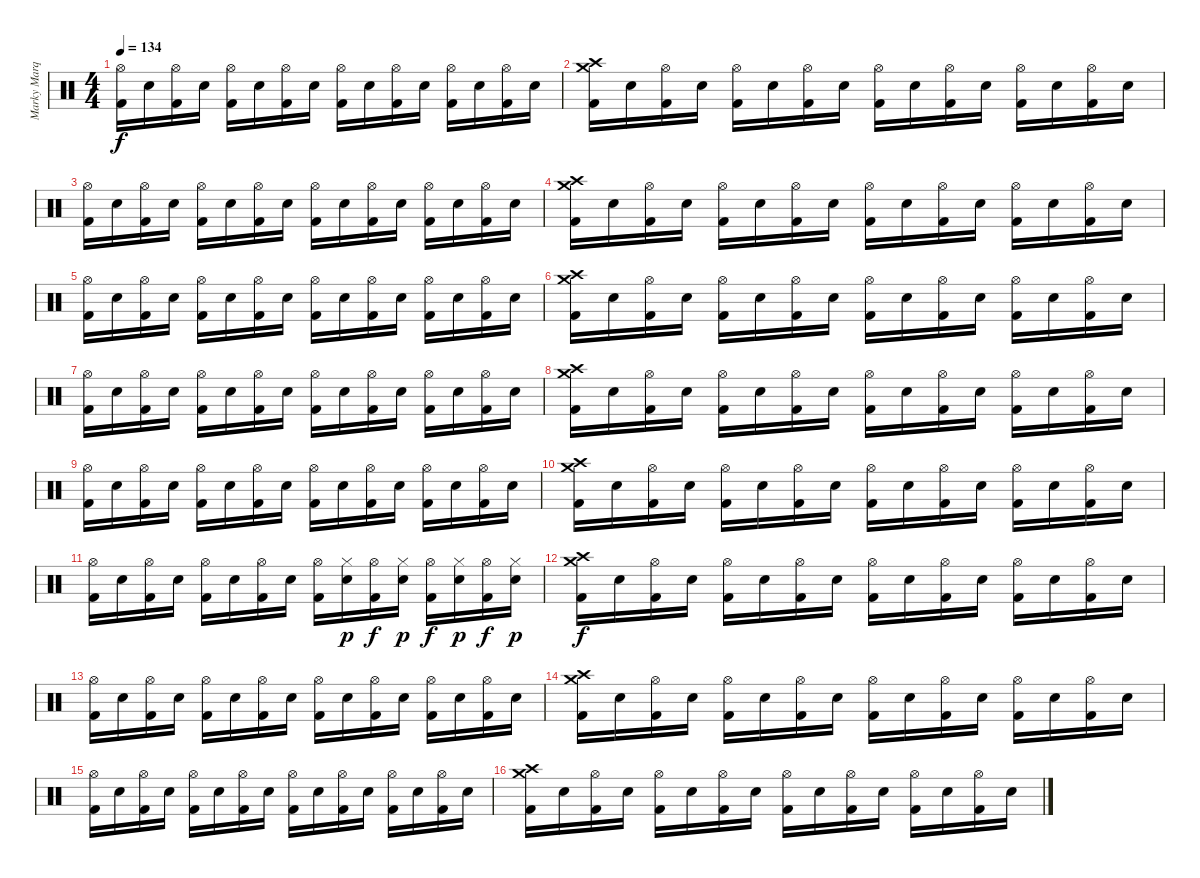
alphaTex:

\track ("Marky Marquis" "Marky Marq") {instrument percussion}
\staff {score}
\articulation defaults
\ts (4 4)
\tempo 134
\clef neutral
\ks c
("Hi-Hat (open)" "Kick (hit) 2").16{dy f} "Electric Snare (hit)".16 ("Hi-Hat (open)" "Kick (hit) 2").16 "Electric Snare (hit)".16 ("Hi-Hat (open)" "Kick (hit) 2").16 "Electric Snare (hit)".16 ("Hi-Hat (open)" "Kick (hit) 2").16 "Electric Snare (hit)".16 ("Hi-Hat (open)" "Kick (hit) 2").16 "Electric Snare (hit)".16 ("Hi-Hat (open)" "Kick (hit) 2").16 "Electric Snare (hit)".16 ("Hi-Hat (open)" "Kick (hit) 2").16 "Electric Snare (hit)".16 ("Hi-Hat (open)" "Kick (hit) 2").16 "Electric Snare (hit)".16 |
("Crash medium (hit)" "Crash high (hit)" "Kick (hit) 2").16 "Electric Snare (hit)".16 ("Hi-Hat (open)" "Kick (hit) 2").16 "Electric Snare (hit)".16 ("Hi-Hat (open)" "Kick (hit) 2").16 "Electric Snare (hit)".16 ("Hi-Hat (open)" "Kick (hit) 2").16 "Electric Snare (hit)".16 ("Hi-Hat (open)" "Kick (hit) 2").16 "Electric Snare (hit)".16 ("Hi-Hat (open)" "Kick (hit) 2").16 "Electric Snare (hit)".16 ("Hi-Hat (open)" "Kick (hit) 2").16 "Electric Snare (hit)".16 ("Hi-Hat (open)" "Kick (hit) 2").16 "Electric Snare (hit)".16 |
("Hi-Hat (open)" "Kick (hit) 2").16 "Electric Snare (hit)".16 ("Hi-Hat (open)" "Kick (hit) 2").16 "Electric Snare (hit)".16 ("Hi-Hat (open)" "Kick (hit) 2").16 "Electric Snare (hit)".16 ("Hi-Hat (open)" "Kick (hit) 2").16 "Electric Snare (hit)".16 ("Hi-Hat (open)" "Kick (hit) 2").16 "Electric Snare (hit)".16 ("Hi-Hat (open)" "Kick (hit) 2").16 "Electric Snare (hit)".16 ("Hi-Hat (open)" "Kick (hit) 2").16 "Electric Snare (hit)".16 ("Hi-Hat (open)" "Kick (hit) 2").16 "Electric Snare (hit)".16 |
("Crash medium (hit)" "Crash high (hit)" "Kick (hit) 2").16 "Electric Snare (hit)".16 ("Hi-Hat (open)" "Kick (hit) 2").16 "Electric Snare (hit)".16 ("Hi-Hat (open)" "Kick (hit) 2").16 "Electric Snare (hit)".16 ("Hi-Hat (open)" "Kick (hit) 2").16 "Electric Snare (hit)".16 ("Hi-Hat (open)" "Kick (hit) 2").16 "Electric Snare (hit)".16 ("Hi-Hat (open)" "Kick (hit) 2").16 "Electric Snare (hit)".16 ("Hi-Hat (open)" "Kick (hit) 2").16 "Electric Snare (hit)".16 ("Hi-Hat (open)" "Kick (hit) 2").16 "Electric Snare (hit)".16 |
("Hi-Hat (open)" "Kick (hit) 2").16 "Electric Snare (hit)".16 ("Hi-Hat (open)" "Kick (hit) 2").16 "Electric Snare (hit)".16 ("Hi-Hat (open)" "Kick (hit) 2").16 "Electric Snare (hit)".16 ("Hi-Hat (open)" "Kick (hit) 2").16 "Electric Snare (hit)".16 ("Hi-Hat (open)" "Kick (hit) 2").16 "Electric Snare (hit)".16 ("Hi-Hat (open)" "Kick (hit) 2").16 "Electric Snare (hit)".16 ("Hi-Hat (open)" "Kick (hit) 2").16 "Electric Snare (hit)".16 ("Hi-Hat (open)" "Kick (hit) 2").16 "Electric Snare (hit)".16 |
("Crash medium (hit)" "Crash high (hit)" "Kick (hit) 2").16 "Electric Snare (hit)".16 ("Hi-Hat (open)" "Kick (hit) 2").16 "Electric Snare (hit)".16 ("Hi-Hat (open)" "Kick (hit) 2").16 "Electric Snare (hit)".16 ("Hi-Hat (open)" "Kick (hit) 2").16 "Electric Snare (hit)".16 ("Hi-Hat (open)" "Kick (hit) 2").16 "Electric Snare (hit)".16 ("Hi-Hat (open)" "Kick (hit) 2").16 "Electric Snare (hit)".16 ("Hi-Hat (open)" "Kick (hit) 2").16 "Electric Snare (hit)".16 ("Hi-Hat (open)" "Kick (hit) 2").16 "Electric Snare (hit)".16 |
("Hi-Hat (open)" "Kick (hit) 2").16 "Electric Snare (hit)".16 ("Hi-Hat (open)" "Kick (hit) 2").16 "Electric Snare (hit)".16 ("Hi-Hat (open)" "Kick (hit) 2").16 "Electric Snare (hit)".16 ("Hi-Hat (open)" "Kick (hit) 2").16 "Electric Snare (hit)".16 ("Hi-Hat (open)" "Kick (hit) 2").16 "Electric Snare (hit)".16 ("Hi-Hat (open)" "Kick (hit) 2").16 "Electric Snare (hit)".16 ("Hi-Hat (open)" "Kick (hit) 2").16 "Electric Snare (hit)".16 ("Hi-Hat (open)" "Kick (hit) 2").16 "Electric Snare (hit)".16 |
("Crash medium (hit)" "Crash high (hit)" "Kick (hit) 2").16 "Electric Snare (hit)".16 ("Hi-Hat (open)" "Kick (hit) 2").16 "Electric Snare (hit)".16 ("Hi-Hat (open)" "Kick (hit) 2").16 "Electric Snare (hit)".16 ("Hi-Hat (open)" "Kick (hit) 2").16 "Electric Snare (hit)".16 ("Hi-Hat (open)" "Kick (hit) 2").16 "Electric Snare (hit)".16 ("Hi-Hat (open)" "Kick (hit) 2").16 "Electric Snare (hit)".16 ("Hi-Hat (open)" "Kick (hit) 2").16 "Electric Snare (hit)".16 ("Hi-Hat (open)" "Kick (hit) 2").16 "Electric Snare (hit)".16 |
("Hi-Hat (open)" "Kick (hit) 2").16 "Electric Snare (hit)".16 ("Hi-Hat (open)" "Kick (hit) 2").16 "Electric Snare (hit)".16 ("Hi-Hat (open)" "Kick (hit) 2").16 "Electric Snare (hit)".16 ("Hi-Hat (open)" "Kick (hit) 2").16 "Electric Snare (hit)".16 ("Hi-Hat (open)" "Kick (hit) 2").16 "Electric Snare (hit)".16 ("Hi-Hat (open)" "Kick (hit) 2").16 "Electric Snare (hit)".16 ("Hi-Hat (open)" "Kick (hit) 2").16 "Electric Snare (hit)".16 ("Hi-Hat (open)" "Kick (hit) 2").16 "Electric Snare (hit)".16 |
("Crash medium (hit)" "Crash high (hit)" "Kick (hit) 2").16 "Electric Snare (hit)".16 ("Hi-Hat (open)" "Kick (hit) 2").16 "Electric Snare (hit)".16 ("Hi-Hat (open)" "Kick (hit) 2").16 "Electric Snare (hit)".16 ("Hi-Hat (open)" "Kick (hit) 2").16 "Electric Snare (hit)".16 ("Hi-Hat (open)" "Kick (hit) 2").16 "Electric Snare (hit)".16 ("Hi-Hat (open)" "Kick (hit) 2").16 "Electric Snare (hit)".16 ("Hi-Hat (open)" "Kick (hit) 2").16 "Electric Snare (hit)".16 ("Hi-Hat (open)" "Kick (hit) 2").16 "Electric Snare (hit)".16 |
("Hi-Hat (open)" "Kick (hit) 2").16 "Electric Snare (hit)".16 ("Hi-Hat (open)" "Kick (hit) 2").16 "Electric Snare (hit)".16 ("Hi-Hat (open)" "Kick (hit) 2").16 "Electric Snare (hit)".16 ("Hi-Hat (open)" "Kick (hit) 2").16 "Electric Snare (hit)".16 ("Hi-Hat (open)" "Kick (hit) 2").16 ("Hi-Hat (closed)" "Electric Snare (hit)").16{dy p} ("Hi-Hat (open)" "Kick (hit) 2").16{dy f} ("Hi-Hat (closed)" "Electric Snare (hit)").16{dy p} ("Hi-Hat (open)" "Kick (hit) 2").16{dy f} ("Hi-Hat (closed)" "Electric Snare (hit)").16{dy p} ("Hi-Hat (open)" "Kick (hit) 2").16{dy f} ("Hi-Hat (closed)" "Electric Snare (hit)").16{dy p} |
("Crash medium (hit)" "Crash high (hit)" "Kick (hit) 2").16{dy f} "Electric Snare (hit)".16 ("Hi-Hat (open)" "Kick (hit) 2").16 "Electric Snare (hit)".16 ("Hi-Hat (open)" "Kick (hit) 2").16 "Electric Snare (hit)".16 ("Hi-Hat (open)" "Kick (hit) 2").16 "Electric Snare (hit)".16 ("Hi-Hat (open)" "Kick (hit) 2").16 "Electric Snare (hit)".16 ("Hi-Hat (open)" "Kick (hit) 2").16 "Electric Snare (hit)".16 ("Hi-Hat (open)" "Kick (hit) 2").16 "Electric Snare (hit)".16 ("Hi-Hat (open)" "Kick (hit) 2").16 "Electric Snare (hit)".16 |
("Hi-Hat (open)" "Kick (hit) 2").16 "Electric Snare (hit)".16 ("Hi-Hat (open)" "Kick (hit) 2").16 "Electric Snare (hit)".16 ("Hi-Hat (open)" "Kick (hit) 2").16 "Electric Snare (hit)".16 ("Hi-Hat (open)" "Kick (hit) 2").16 "Electric Snare (hit)".16 ("Hi-Hat (open)" "Kick (hit) 2").16 "Electric Snare (hit)".16 ("Hi-Hat (open)" "Kick (hit) 2").16 "Electric Snare (hit)".16 ("Hi-Hat (open)" "Kick (hit) 2").16 "Electric Snare (hit)".16 ("Hi-Hat (open)" "Kick (hit) 2").16 "Electric Snare (hit)".16 |
("Crash medium (hit)" "Crash high (hit)" "Kick (hit) 2").16 "Electric Snare (hit)".16 ("Hi-Hat (open)" "Kick (hit) 2").16 "Electric Snare (hit)".16 ("Hi-Hat (open)" "Kick (hit) 2").16 "Electric Snare (hit)".16 ("Hi-Hat (open)" "Kick (hit) 2").16 "Electric Snare (hit)".16 ("Hi-Hat (open)" "Kick (hit) 2").16 "Electric Snare (hit)".16 ("Hi-Hat (open)" "Kick (hit) 2").16 "Electric Snare (hit)".16 ("Hi-Hat (open)" "Kick (hit) 2").16 "Electric Snare (hit)".16 ("Hi-Hat (open)" "Kick (hit) 2").16 "Electric Snare (hit)".16 |
("Hi-Hat (open)" "Kick (hit) 2").16 "Electric Snare (hit)".16 ("Hi-Hat (open)" "Kick (hit) 2").16 "Electric Snare (hit)".16 ("Hi-Hat (open)" "Kick (hit) 2").16 "Electric Snare (hit)".16 ("Hi-Hat (open)" "Kick (hit) 2").16 "Electric Snare (hit)".16 ("Hi-Hat (open)" "Kick (hit) 2").16 "Electric Snare (hit)".16 ("Hi-Hat (open)" "Kick (hit) 2").16 "Electric Snare (hit)".16 ("Hi-Hat (open)" "Kick (hit) 2").16 "Electric Snare (hit)".16 ("Hi-Hat (open)" "Kick (hit) 2").16 "Electric Snare (hit)".16 |
("Crash medium (hit)" "Crash high (hit)" "Kick (hit) 2").16 "Electric Snare (hit)".16 ("Hi-Hat (open)" "Kick (hit) 2").16 "Electric Snare (hit)".16 ("Hi-Hat (open)" "Kick (hit) 2").16 "Electric Snare (hit)".16 ("Hi-Hat (open)" "Kick (hit) 2").16 "Electric Snare (hit)".16 ("Hi-Hat (open)" "Kick (hit) 2").16 "Electric Snare (hit)".16 ("Hi-Hat (open)" "Kick (hit) 2").16 "Electric Snare (hit)".16 ("Hi-Hat (open)" "Kick (hit) 2").16 "Electric Snare (hit)".16 ("Hi-Hat (open)" "Kick (hit) 2").16 "Electric Snare (hit)".16
